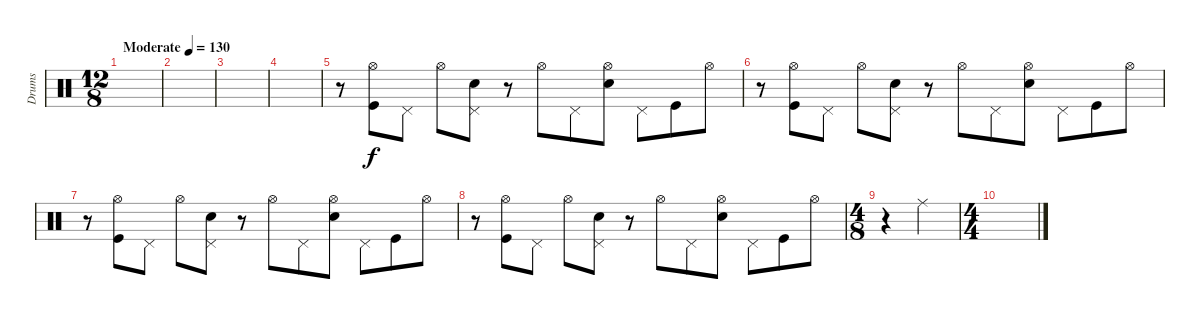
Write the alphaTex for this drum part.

\track ("Drums" "Drums") {instrument percussion}
\staff {score}
\articulation defaults
\ts (12 8)
\tempo (130 "Moderate")
\clef neutral
\ks c
|
|
|
|
r.8 ("Hi-Hat (open)" "Kick (hit)").8 "Pedal Hi-Hat (hit)".8 "Hi-Hat (open)".8 ("Pedal Hi-Hat (hit)" "Snare (hit) 2").8 r.8 "Hi-Hat (open)".8 "Pedal Hi-Hat (hit)".8 ("Hi-Hat (open)" "Snare (hit) 2").8 "Pedal Hi-Hat (hit)".8 "Kick (hit)".8 "Hi-Hat (open)".8 |
r.8 ("Hi-Hat (open)" "Kick (hit)").8 "Pedal Hi-Hat (hit)".8 "Hi-Hat (open)".8 ("Pedal Hi-Hat (hit)" "Snare (hit) 2").8 r.8 "Hi-Hat (open)".8 "Pedal Hi-Hat (hit)".8 ("Hi-Hat (open)" "Snare (hit) 2").8 "Pedal Hi-Hat (hit)".8 "Kick (hit)".8 "Hi-Hat (open)".8 |
r.8 ("Hi-Hat (open)" "Kick (hit)").8 "Pedal Hi-Hat (hit)".8 "Hi-Hat (open)".8 ("Pedal Hi-Hat (hit)" "Snare (hit) 2").8 r.8 "Hi-Hat (open)".8 "Pedal Hi-Hat (hit)".8 ("Hi-Hat (open)" "Snare (hit) 2").8 "Pedal Hi-Hat (hit)".8 "Kick (hit)".8 "Hi-Hat (open)".8 |
r.8 ("Hi-Hat (open)" "Kick (hit)").8 "Pedal Hi-Hat (hit)".8 "Hi-Hat (open)".8 ("Pedal Hi-Hat (hit)" "Snare (hit) 2").8 r.8 "Hi-Hat (open)".8 "Pedal Hi-Hat (hit)".8 ("Hi-Hat (open)" "Snare (hit) 2").8 "Pedal Hi-Hat (hit)".8 "Kick (hit)".8 "Hi-Hat (open)".8 |
\ts (4 8)
r.4 "Ride (middle)".4 |
\ts (4 4)
